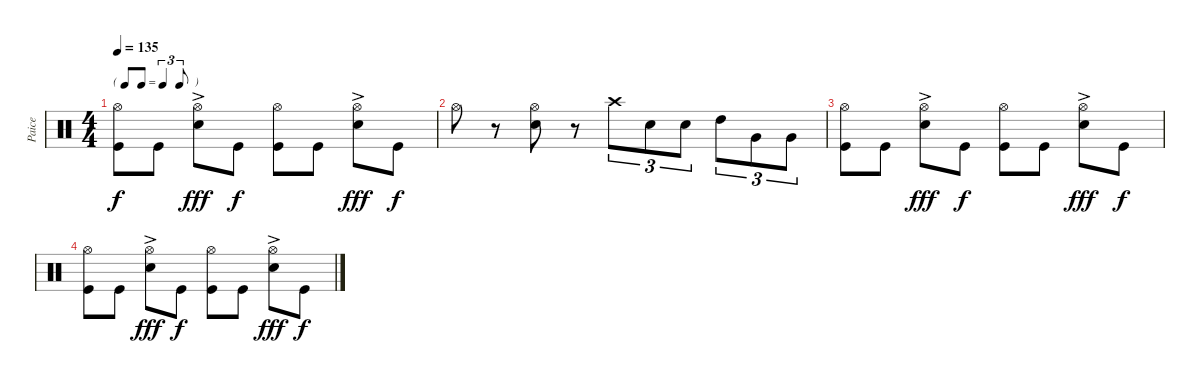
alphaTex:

\track ("Paice" "Paice") {instrument percussion}
\staff {score}
\articulation defaults
\ts (4 4)
\tf triplet8th
\tempo 135
\clef neutral
\ks c
("Hi-Hat (open)" "Kick (hit)").8{dy f} "Kick (hit)".8 ("Hi-Hat (open)" "Snare (hit) 2"{ac}).8{dy fff} "Kick (hit)".8{dy f} ("Hi-Hat (open)" "Kick (hit)").8 "Kick (hit)".8 ("Hi-Hat (open)" "Snare (hit) 2"{ac}).8{dy fff} "Kick (hit)".8{dy f} |
"Hi-Hat (open)".8 r.8 ("Hi-Hat (open)" "Snare (hit) 2").8 r.8 "Crash high (hit)".8{tu (3 2)} "Snare (hit) 2".8{tu (3 2)} "Snare (hit) 2".8{tu (3 2)} "High Tom (hit)".8{tu (3 2)} "Very Low Tom (hit)".8{tu (3 2)} "Very Low Tom (hit)".8{tu (3 2)} |
("Hi-Hat (open)" "Kick (hit)").8{volume 0} "Kick (hit)".8 ("Hi-Hat (open)" "Snare (hit) 2"{ac}).8{dy fff} "Kick (hit)".8{dy f} ("Hi-Hat (open)" "Kick (hit)").8 "Kick (hit)".8 ("Hi-Hat (open)" "Snare (hit) 2"{ac}).8{dy fff} "Kick (hit)".8{dy f} |
("Hi-Hat (open)" "Kick (hit)").8 "Kick (hit)".8 ("Hi-Hat (open)" "Snare (hit) 2"{ac}).8{dy fff} "Kick (hit)".8{dy f} ("Hi-Hat (open)" "Kick (hit)").8 "Kick (hit)".8 ("Hi-Hat (open)" "Snare (hit) 2"{ac}).8{dy fff} "Kick (hit)".8{dy f}
